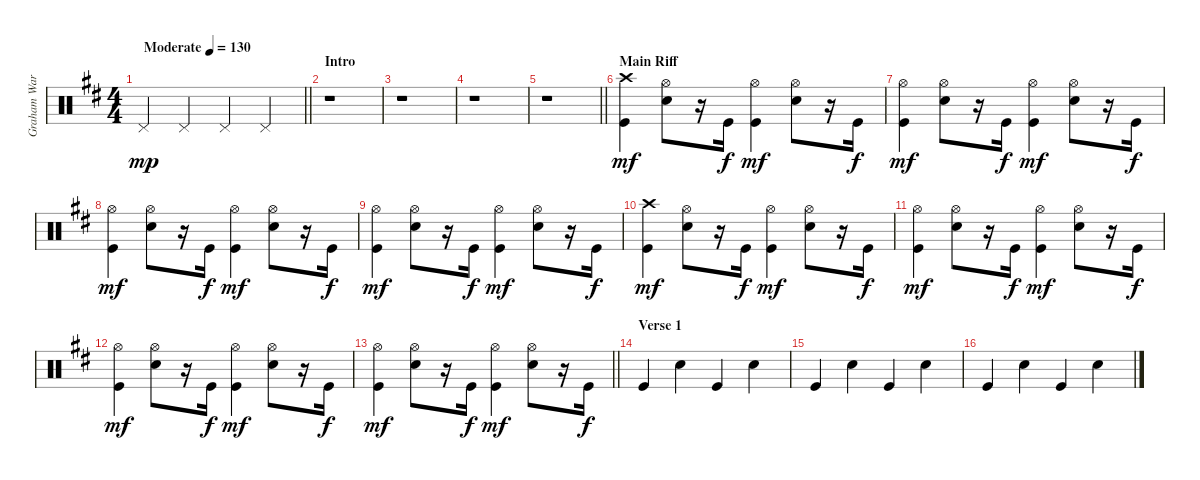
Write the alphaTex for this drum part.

\track ("Graham Ward (DRUMS)" "Graham War") {instrument percussion}
\staff {score}
\articulation defaults
\ts (4 4)
\tempo (130 "Moderate")
\clef neutral
\barLineRight lightlight
\ks d "Pedal Hi-Hat (hit)".4{dy mp} "Pedal Hi-Hat (hit)".4 "Pedal Hi-Hat (hit)".4 "Pedal Hi-Hat (hit)".4
|
\section ("" "Intro")
r.1 |
r.1 |
r.1 |
\barLineRight lightlight
r.1 |
\section ("" "Main Riff")
("Crash high (hit)" "Kick (hit)").4{dy mf} ("Snare (hit) 2" "Hi-Hat (open)").8 r.16 "Kick (hit)".16{dy f} ("Hi-Hat (open)" "Kick (hit)").4{dy mf} ("Snare (hit) 2" "Hi-Hat (open)").8 r.16 "Kick (hit)".16{dy f} |
("Hi-Hat (open)" "Kick (hit)").4{dy mf} ("Snare (hit) 2" "Hi-Hat (open)").8 r.16 "Kick (hit)".16{dy f} ("Hi-Hat (open)" "Kick (hit)").4{dy mf} ("Snare (hit) 2" "Hi-Hat (open)").8 r.16 "Kick (hit)".16{dy f} |
("Hi-Hat (open)" "Kick (hit)").4{dy mf} ("Snare (hit) 2" "Hi-Hat (open)").8 r.16 "Kick (hit)".16{dy f} ("Hi-Hat (open)" "Kick (hit)").4{dy mf} ("Snare (hit) 2" "Hi-Hat (open)").8 r.16 "Kick (hit)".16{dy f} |
("Hi-Hat (open)" "Kick (hit)").4{dy mf} ("Snare (hit) 2" "Hi-Hat (open)").8 r.16 "Kick (hit)".16{dy f} ("Hi-Hat (open)" "Kick (hit)").4{dy mf} ("Snare (hit) 2" "Hi-Hat (open)").8 r.16 "Kick (hit)".16{dy f} |
("Crash high (hit)" "Kick (hit)").4{dy mf} ("Snare (hit) 2" "Hi-Hat (open)").8 r.16 "Kick (hit)".16{dy f} ("Hi-Hat (open)" "Kick (hit)").4{dy mf} ("Snare (hit) 2" "Hi-Hat (open)").8 r.16 "Kick (hit)".16{dy f} |
("Hi-Hat (open)" "Kick (hit)").4{dy mf} ("Snare (hit) 2" "Hi-Hat (open)").8 r.16 "Kick (hit)".16{dy f} ("Hi-Hat (open)" "Kick (hit)").4{dy mf} ("Snare (hit) 2" "Hi-Hat (open)").8 r.16 "Kick (hit)".16{dy f} |
("Hi-Hat (open)" "Kick (hit)").4{dy mf} ("Snare (hit) 2" "Hi-Hat (open)").8 r.16 "Kick (hit)".16{dy f} ("Hi-Hat (open)" "Kick (hit)").4{dy mf} ("Snare (hit) 2" "Hi-Hat (open)").8 r.16 "Kick (hit)".16{dy f} |
\barLineRight lightlight
("Hi-Hat (open)" "Kick (hit)").4{dy mf} ("Snare (hit) 2" "Hi-Hat (open)").8 r.16 "Kick (hit)".16{dy f} ("Hi-Hat (open)" "Kick (hit)").4{dy mf} ("Snare (hit) 2" "Hi-Hat (open)").8 r.16 "Kick (hit)".16{dy f} |
\section ("" "Verse 1")
"Kick (hit)".4 "Snare (hit) 2".4 "Kick (hit)".4 "Snare (hit) 2".4 |
"Kick (hit)".4 "Snare (hit) 2".4 "Kick (hit)".4 "Snare (hit) 2".4 |
"Kick (hit)".4 "Snare (hit) 2".4 "Kick (hit)".4 "Snare (hit) 2".4
